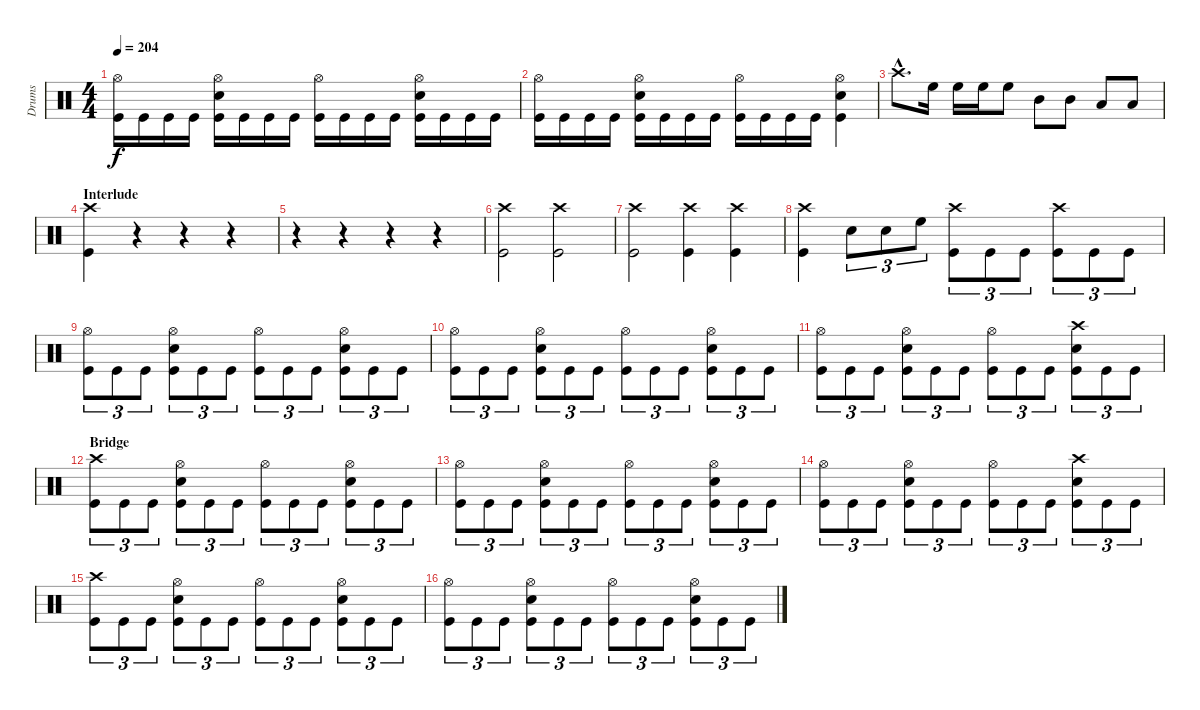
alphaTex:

\track ("Drums" "Drums") {instrument percussion}
\staff {score}
\articulation defaults
\ts (4 4)
\tempo 204
\clef neutral
\ks c
("Hi-Hat (open)" "Kick (hit)").16{dy f} "Kick (hit)".16 "Kick (hit)".16 "Kick (hit)".16 ("Hi-Hat (open)" "Snare (hit) 2" "Kick (hit)").16 "Kick (hit)".16 "Kick (hit)".16 "Kick (hit)".16 ("Hi-Hat (open)" "Kick (hit)").16 "Kick (hit)".16 "Kick (hit)".16 "Kick (hit)".16 ("Hi-Hat (open)" "Snare (hit) 2" "Kick (hit)").16 "Kick (hit)".16 "Kick (hit)".16 "Kick (hit)".16 |
("Hi-Hat (open)" "Kick (hit)").16 "Kick (hit)".16 "Kick (hit)".16 "Kick (hit)".16 ("Hi-Hat (open)" "Snare (hit) 2" "Kick (hit)").16 "Kick (hit)".16 "Kick (hit)".16 "Kick (hit)".16 ("Hi-Hat (open)" "Kick (hit)").16 "Kick (hit)".16 "Kick (hit)".16 "Kick (hit)".16 ("Hi-Hat (open)" "Snare (hit) 2" "Kick (hit)").4 |
"Crash high (hit)"{hac}.8{d} "High Floor Tom (hit)".16 "High Floor Tom (hit)".16 "High Floor Tom (hit)".16 "High Floor Tom (hit)".8 "Mid Tom (hit)".8 "Mid Tom (hit)".8 "Low Tom (hit)".8 "Low Tom (hit)".8 |
\section ("" "Interlude")
("Crash high (hit)" "Kick (hit)").4 r.4 r.4 r.4 |
r.4 r.4 r.4 r.4 |
("Crash high (hit)" "Kick (hit)").2 ("Crash high (hit)" "Kick (hit)").2 |
("Crash high (hit)" "Kick (hit)").2 ("Crash high (hit)" "Kick (hit)").4 ("Crash high (hit)" "Kick (hit)").4 |
("Crash high (hit)" "Kick (hit)").4 "Snare (hit) 2".8{tu (3 2)} "Snare (hit) 2".8{tu (3 2)} "High Floor Tom (hit)".8{tu (3 2)} ("Crash high (hit)" "Kick (hit)").8{tu (3 2)} "Kick (hit)".8{tu (3 2)} "Kick (hit)".8{tu (3 2)} ("Crash high (hit)" "Kick (hit)").8{tu (3 2)} "Kick (hit)".8{tu (3 2)} "Kick (hit)".8{tu (3 2)} |
("Hi-Hat (open)" "Kick (hit)").8{tu (3 2)} "Kick (hit)".8{tu (3 2)} "Kick (hit)".8{tu (3 2)} ("Hi-Hat (open)" "Snare (hit) 2" "Kick (hit)").8{tu (3 2)} "Kick (hit)".8{tu (3 2)} "Kick (hit)".8{tu (3 2)} ("Hi-Hat (open)" "Kick (hit)").8{tu (3 2)} "Kick (hit)".8{tu (3 2)} "Kick (hit)".8{tu (3 2)} ("Hi-Hat (open)" "Snare (hit) 2" "Kick (hit)").8{tu (3 2)} "Kick (hit)".8{tu (3 2)} "Kick (hit)".8{tu (3 2)} |
("Hi-Hat (open)" "Kick (hit)").8{tu (3 2)} "Kick (hit)".8{tu (3 2)} "Kick (hit)".8{tu (3 2)} ("Hi-Hat (open)" "Snare (hit) 2" "Kick (hit)").8{tu (3 2)} "Kick (hit)".8{tu (3 2)} "Kick (hit)".8{tu (3 2)} ("Hi-Hat (open)" "Kick (hit)").8{tu (3 2)} "Kick (hit)".8{tu (3 2)} "Kick (hit)".8{tu (3 2)} ("Hi-Hat (open)" "Snare (hit) 2" "Kick (hit)").8{tu (3 2)} "Kick (hit)".8{tu (3 2)} "Kick (hit)".8{tu (3 2)} |
("Hi-Hat (open)" "Kick (hit)").8{tu (3 2)} "Kick (hit)".8{tu (3 2)} "Kick (hit)".8{tu (3 2)} ("Hi-Hat (open)" "Snare (hit) 2" "Kick (hit)").8{tu (3 2)} "Kick (hit)".8{tu (3 2)} "Kick (hit)".8{tu (3 2)} ("Hi-Hat (open)" "Kick (hit)").8{tu (3 2)} "Kick (hit)".8{tu (3 2)} "Kick (hit)".8{tu (3 2)} ("Crash high (hit)" "Snare (hit) 2" "Kick (hit)").8{tu (3 2)} "Kick (hit)".8{tu (3 2)} "Kick (hit)".8{tu (3 2)} |
\section ("" "Bridge")
("Crash high (hit)" "Kick (hit)").8{tu (3 2)} "Kick (hit)".8{tu (3 2)} "Kick (hit)".8{tu (3 2)} ("Hi-Hat (open)" "Snare (hit) 2" "Kick (hit)").8{tu (3 2)} "Kick (hit)".8{tu (3 2)} "Kick (hit)".8{tu (3 2)} ("Hi-Hat (open)" "Kick (hit)").8{tu (3 2)} "Kick (hit)".8{tu (3 2)} "Kick (hit)".8{tu (3 2)} ("Hi-Hat (open)" "Snare (hit) 2" "Kick (hit)").8{tu (3 2)} "Kick (hit)".8{tu (3 2)} "Kick (hit)".8{tu (3 2)} |
("Hi-Hat (open)" "Kick (hit)").8{tu (3 2)} "Kick (hit)".8{tu (3 2)} "Kick (hit)".8{tu (3 2)} ("Hi-Hat (open)" "Snare (hit) 2" "Kick (hit)").8{tu (3 2)} "Kick (hit)".8{tu (3 2)} "Kick (hit)".8{tu (3 2)} ("Hi-Hat (open)" "Kick (hit)").8{tu (3 2)} "Kick (hit)".8{tu (3 2)} "Kick (hit)".8{tu (3 2)} ("Hi-Hat (open)" "Snare (hit) 2" "Kick (hit)").8{tu (3 2)} "Kick (hit)".8{tu (3 2)} "Kick (hit)".8{tu (3 2)} |
("Hi-Hat (open)" "Kick (hit)").8{tu (3 2)} "Kick (hit)".8{tu (3 2)} "Kick (hit)".8{tu (3 2)} ("Hi-Hat (open)" "Snare (hit) 2" "Kick (hit)").8{tu (3 2)} "Kick (hit)".8{tu (3 2)} "Kick (hit)".8{tu (3 2)} ("Hi-Hat (open)" "Kick (hit)").8{tu (3 2)} "Kick (hit)".8{tu (3 2)} "Kick (hit)".8{tu (3 2)} ("Crash high (hit)" "Snare (hit) 2" "Kick (hit)").8{tu (3 2)} "Kick (hit)".8{tu (3 2)} "Kick (hit)".8{tu (3 2)} |
("Crash high (hit)" "Kick (hit)").8{tu (3 2)} "Kick (hit)".8{tu (3 2)} "Kick (hit)".8{tu (3 2)} ("Hi-Hat (open)" "Snare (hit) 2" "Kick (hit)").8{tu (3 2)} "Kick (hit)".8{tu (3 2)} "Kick (hit)".8{tu (3 2)} ("Hi-Hat (open)" "Kick (hit)").8{tu (3 2)} "Kick (hit)".8{tu (3 2)} "Kick (hit)".8{tu (3 2)} ("Hi-Hat (open)" "Snare (hit) 2" "Kick (hit)").8{tu (3 2)} "Kick (hit)".8{tu (3 2)} "Kick (hit)".8{tu (3 2)} |
("Hi-Hat (open)" "Kick (hit)").8{tu (3 2)} "Kick (hit)".8{tu (3 2)} "Kick (hit)".8{tu (3 2)} ("Hi-Hat (open)" "Snare (hit) 2" "Kick (hit)").8{tu (3 2)} "Kick (hit)".8{tu (3 2)} "Kick (hit)".8{tu (3 2)} ("Hi-Hat (open)" "Kick (hit)").8{tu (3 2)} "Kick (hit)".8{tu (3 2)} "Kick (hit)".8{tu (3 2)} ("Hi-Hat (open)" "Snare (hit) 2" "Kick (hit)").8{tu (3 2)} "Kick (hit)".8{tu (3 2)} "Kick (hit)".8{tu (3 2)}
